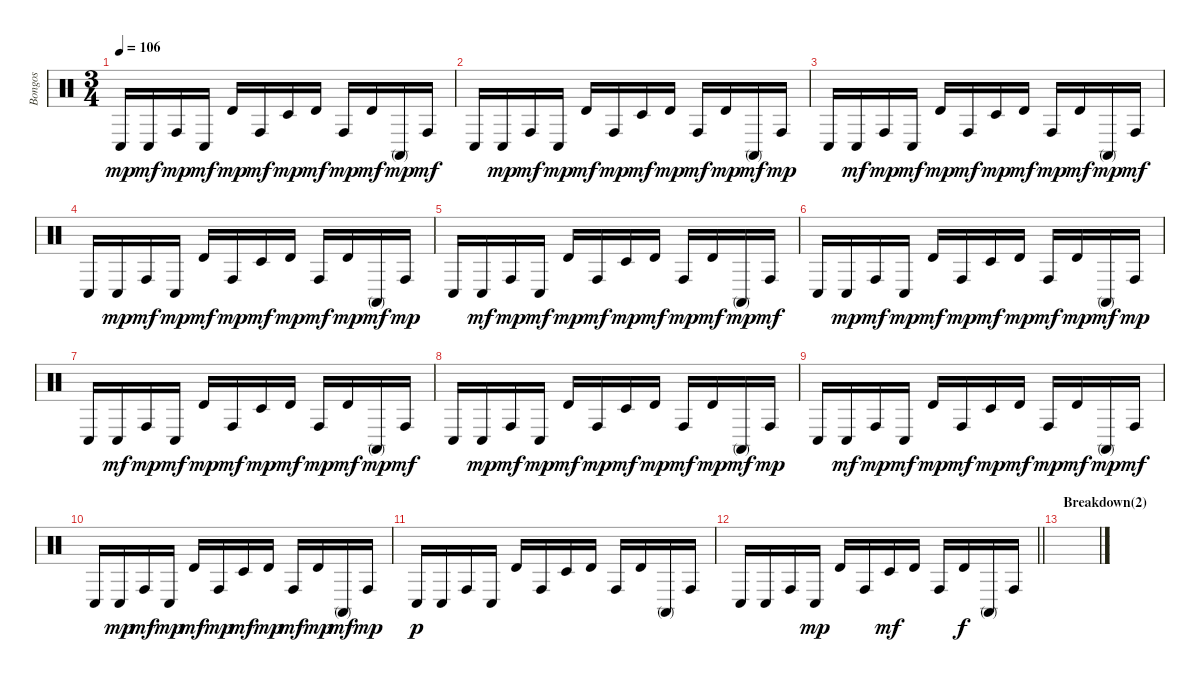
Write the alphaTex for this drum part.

\track ("Bongos" "Bongos") {instrument percussion}
\staff {score}
\articulation defaults
\ts (3 4)
\tempo 106
\clef neutral
\ks c "Conga low (hit)".16{dy mp} "Conga low (hit)".16{dy mf} "Conga high (hit)".16{dy mp} "Conga low (hit)".16{dy mf} "Timbale high (hit)".16{dy mp} "Conga high (hit)".16{dy mf} "Timbale low (hit)".16{dy mp} "Timbale high (hit)".16{dy mf} "Conga high (hit)".16{dy mp} "Timbale high (hit)".16{dy mf} "Conga high (mute)".16{dy mp} "Conga high (hit)".16{dy mf}
|
"Conga low (hit)".16 "Conga low (hit)".16{dy mp} "Conga high (hit)".16{dy mf} "Conga low (hit)".16{dy mp} "Timbale high (hit)".16{dy mf} "Conga high (hit)".16{dy mp} "Timbale low (hit)".16{dy mf} "Timbale high (hit)".16{dy mp} "Conga high (hit)".16{dy mf} "Timbale high (hit)".16{dy mp} "Conga high (mute)".16{dy mf} "Conga high (hit)".16{dy mp} |
"Conga low (hit)".16 "Conga low (hit)".16{dy mf} "Conga high (hit)".16{dy mp} "Conga low (hit)".16{dy mf} "Timbale high (hit)".16{dy mp} "Conga high (hit)".16{dy mf} "Timbale low (hit)".16{dy mp} "Timbale high (hit)".16{dy mf} "Conga high (hit)".16{dy mp} "Timbale high (hit)".16{dy mf} "Conga high (mute)".16{dy mp} "Conga high (hit)".16{dy mf} |
"Conga low (hit)".16 "Conga low (hit)".16{dy mp} "Conga high (hit)".16{dy mf} "Conga low (hit)".16{dy mp} "Timbale high (hit)".16{dy mf} "Conga high (hit)".16{dy mp} "Timbale low (hit)".16{dy mf} "Timbale high (hit)".16{dy mp} "Conga high (hit)".16{dy mf} "Timbale high (hit)".16{dy mp} "Conga high (mute)".16{dy mf} "Conga high (hit)".16{dy mp} |
"Conga low (hit)".16 "Conga low (hit)".16{dy mf} "Conga high (hit)".16{dy mp} "Conga low (hit)".16{dy mf} "Timbale high (hit)".16{dy mp} "Conga high (hit)".16{dy mf} "Timbale low (hit)".16{dy mp} "Timbale high (hit)".16{dy mf} "Conga high (hit)".16{dy mp} "Timbale high (hit)".16{dy mf} "Conga high (mute)".16{dy mp} "Conga high (hit)".16{dy mf} |
"Conga low (hit)".16 "Conga low (hit)".16{dy mp} "Conga high (hit)".16{dy mf} "Conga low (hit)".16{dy mp} "Timbale high (hit)".16{dy mf} "Conga high (hit)".16{dy mp} "Timbale low (hit)".16{dy mf} "Timbale high (hit)".16{dy mp} "Conga high (hit)".16{dy mf} "Timbale high (hit)".16{dy mp} "Conga high (mute)".16{dy mf} "Conga high (hit)".16{dy mp} |
"Conga low (hit)".16 "Conga low (hit)".16{dy mf} "Conga high (hit)".16{dy mp} "Conga low (hit)".16{dy mf} "Timbale high (hit)".16{dy mp} "Conga high (hit)".16{dy mf} "Timbale low (hit)".16{dy mp} "Timbale high (hit)".16{dy mf} "Conga high (hit)".16{dy mp} "Timbale high (hit)".16{dy mf} "Conga high (mute)".16{dy mp} "Conga high (hit)".16{dy mf} |
"Conga low (hit)".16 "Conga low (hit)".16{dy mp} "Conga high (hit)".16{dy mf} "Conga low (hit)".16{dy mp} "Timbale high (hit)".16{dy mf} "Conga high (hit)".16{dy mp} "Timbale low (hit)".16{dy mf} "Timbale high (hit)".16{dy mp} "Conga high (hit)".16{dy mf} "Timbale high (hit)".16{dy mp} "Conga high (mute)".16{dy mf} "Conga high (hit)".16{dy mp} |
"Conga low (hit)".16 "Conga low (hit)".16{dy mf} "Conga high (hit)".16{dy mp} "Conga low (hit)".16{dy mf} "Timbale high (hit)".16{dy mp} "Conga high (hit)".16{dy mf} "Timbale low (hit)".16{dy mp} "Timbale high (hit)".16{dy mf} "Conga high (hit)".16{dy mp} "Timbale high (hit)".16{dy mf} "Conga high (mute)".16{dy mp} "Conga high (hit)".16{dy mf} |
"Conga low (hit)".16 "Conga low (hit)".16{dy mp} "Conga high (hit)".16{dy mf} "Conga low (hit)".16{dy mp} "Timbale high (hit)".16{dy mf} "Conga high (hit)".16{dy mp} "Timbale low (hit)".16{dy mf} "Timbale high (hit)".16{dy mp} "Conga high (hit)".16{dy mf} "Timbale high (hit)".16{dy mp} "Conga high (mute)".16{dy mf} "Conga high (hit)".16{dy mp} |
"Conga low (hit)".16{dy p} "Conga low (hit)".16 "Conga high (hit)".16 "Conga low (hit)".16 "Timbale high (hit)".16 "Conga high (hit)".16 "Timbale low (hit)".16 "Timbale high (hit)".16 "Conga high (hit)".16 "Timbale high (hit)".16 "Conga high (mute)".16 "Conga high (hit)".16 |
\barLineRight lightlight "Conga low (hit)".16 "Conga low (hit)".16 "Conga high (hit)".16 "Conga low (hit)".16{dy mp} "Timbale high (hit)".16 "Conga high (hit)".16 "Timbale low (hit)".16{dy mf} "Timbale high (hit)".16 "Conga high (hit)".16 "Timbale high (hit)".16{dy f} "Conga high (mute)".16 "Conga high (hit)".16
|
\section ("" "Breakdown(2)")
